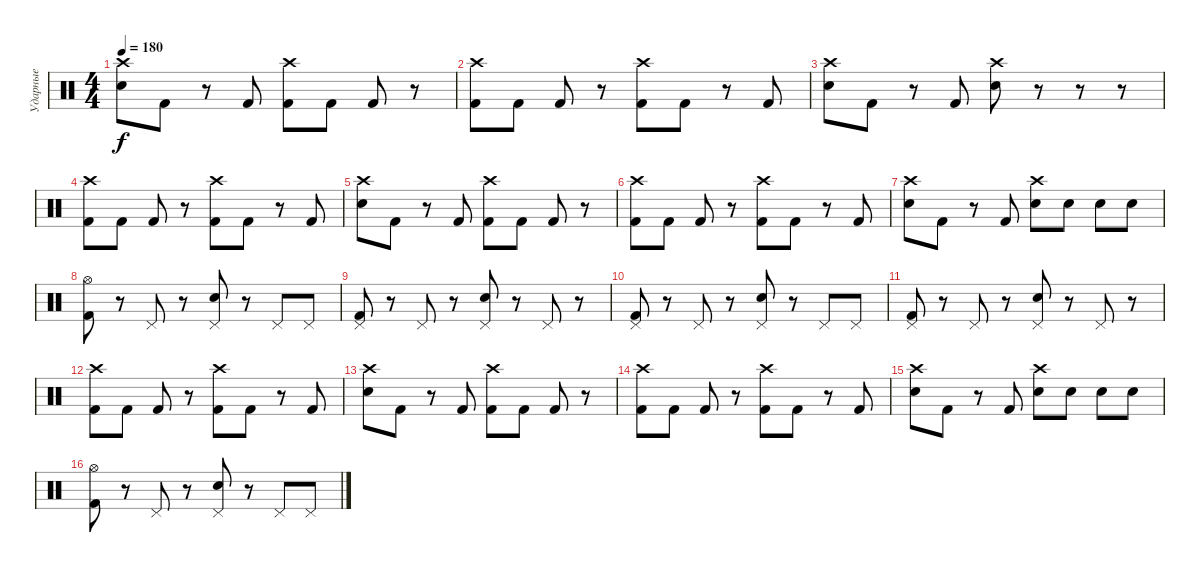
\track ("Ударные" "Ударные") {instrument percussion}
\staff {score}
\articulation defaults
\ts (4 4)
\tempo 180
\clef neutral
\ks c
("Crash high (hit)" "Snare (hit) 2").8{dy f} "Kick (hit) 2".8 r.8 "Kick (hit) 2".8 ("Crash high (hit)" "Kick (hit) 2").8 "Kick (hit) 2".8 "Kick (hit) 2".8 r.8 |
("Crash high (hit)" "Kick (hit) 2").8 "Kick (hit) 2".8 "Kick (hit) 2".8 r.8 ("Crash high (hit)" "Kick (hit) 2").8 "Kick (hit) 2".8 r.8 "Kick (hit) 2".8 |
("Crash high (hit)" "Snare (hit) 2").8 "Kick (hit) 2".8 r.8 "Kick (hit) 2".8 ("Crash high (hit)" "Snare (hit) 2").8 r.8 r.8 r.8 |
("Crash high (hit)" "Kick (hit) 2").8 "Kick (hit) 2".8 "Kick (hit) 2".8 r.8 ("Crash high (hit)" "Kick (hit) 2").8 "Kick (hit) 2".8 r.8 "Kick (hit) 2".8 |
("Crash high (hit)" "Snare (hit) 2").8 "Kick (hit) 2".8 r.8 "Kick (hit) 2".8 ("Crash high (hit)" "Kick (hit) 2").8 "Kick (hit) 2".8 "Kick (hit) 2".8 r.8 |
("Crash high (hit)" "Kick (hit) 2").8 "Kick (hit) 2".8 "Kick (hit) 2".8 r.8 ("Crash high (hit)" "Kick (hit) 2").8 "Kick (hit) 2".8 r.8 "Kick (hit) 2".8 |
("Crash high (hit)" "Snare (hit) 2").8 "Kick (hit) 2".8 r.8 "Kick (hit) 2".8 ("Crash high (hit)" "Snare (hit) 2").8 "Snare (hit) 2".8 "Snare (hit) 2".8 "Snare (hit) 2".8 |
("Hi-Hat (open)" "Kick (hit) 2").8 r.8 "Pedal Hi-Hat (hit)".8 r.8 ("Pedal Hi-Hat (hit)" "Snare (hit) 2").8 r.8 "Pedal Hi-Hat (hit)".8 "Pedal Hi-Hat (hit)".8 |
("Pedal Hi-Hat (hit)" "Kick (hit) 2").8 r.8 "Pedal Hi-Hat (hit)".8 r.8 ("Pedal Hi-Hat (hit)" "Snare (hit) 2").8 r.8 "Pedal Hi-Hat (hit)".8 r.8 |
("Pedal Hi-Hat (hit)" "Kick (hit) 2").8 r.8 "Pedal Hi-Hat (hit)".8 r.8 ("Pedal Hi-Hat (hit)" "Snare (hit) 2").8 r.8 "Pedal Hi-Hat (hit)".8 "Pedal Hi-Hat (hit)".8 |
("Pedal Hi-Hat (hit)" "Kick (hit) 2").8 r.8 "Pedal Hi-Hat (hit)".8 r.8 ("Pedal Hi-Hat (hit)" "Snare (hit) 2").8 r.8 "Pedal Hi-Hat (hit)".8 r.8 |
("Crash high (hit)" "Kick (hit) 2").8 "Kick (hit) 2".8 "Kick (hit) 2".8 r.8 ("Crash high (hit)" "Kick (hit) 2").8 "Kick (hit) 2".8 r.8 "Kick (hit) 2".8 |
("Crash high (hit)" "Snare (hit) 2").8 "Kick (hit) 2".8 r.8 "Kick (hit) 2".8 ("Crash high (hit)" "Kick (hit) 2").8 "Kick (hit) 2".8 "Kick (hit) 2".8 r.8 |
("Crash high (hit)" "Kick (hit) 2").8 "Kick (hit) 2".8 "Kick (hit) 2".8 r.8 ("Crash high (hit)" "Kick (hit) 2").8 "Kick (hit) 2".8 r.8 "Kick (hit) 2".8 |
("Crash high (hit)" "Snare (hit) 2").8 "Kick (hit) 2".8 r.8 "Kick (hit) 2".8 ("Crash high (hit)" "Snare (hit) 2").8 "Snare (hit) 2".8 "Snare (hit) 2".8 "Snare (hit) 2".8 |
("Hi-Hat (open)" "Kick (hit) 2").8 r.8 "Pedal Hi-Hat (hit)".8 r.8 ("Pedal Hi-Hat (hit)" "Snare (hit) 2").8 r.8 "Pedal Hi-Hat (hit)".8 "Pedal Hi-Hat (hit)".8
